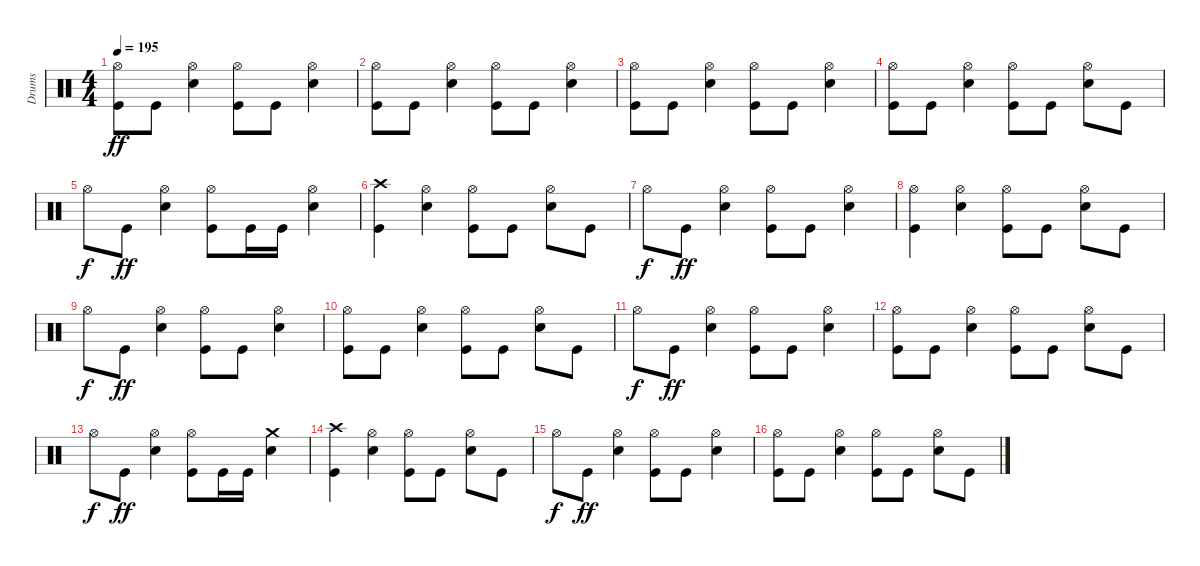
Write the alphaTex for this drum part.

\track ("Drums" "Drums") {instrument percussion}
\staff {score}
\articulation defaults
\ts (4 4)
\tempo 195
\clef neutral
\ks c
("Hi-Hat (open)" "Kick (hit)").8{dy ff} "Kick (hit)".8 ("Hi-Hat (open)" "Snare (hit) 2").4 ("Hi-Hat (open)" "Kick (hit)").8 "Kick (hit)".8 ("Hi-Hat (open)" "Snare (hit) 2").4 |
("Hi-Hat (open)" "Kick (hit)").8 "Kick (hit)".8 ("Hi-Hat (open)" "Snare (hit) 2").4 ("Hi-Hat (open)" "Kick (hit)").8 "Kick (hit)".8 ("Hi-Hat (open)" "Snare (hit) 2").4 |
("Hi-Hat (open)" "Kick (hit)").8 "Kick (hit)".8 ("Hi-Hat (open)" "Snare (hit) 2").4 ("Hi-Hat (open)" "Kick (hit)").8 "Kick (hit)".8 ("Hi-Hat (open)" "Snare (hit) 2").4 |
("Hi-Hat (open)" "Kick (hit)").8 "Kick (hit)".8 ("Hi-Hat (open)" "Snare (hit) 2").4 ("Hi-Hat (open)" "Kick (hit)").8 "Kick (hit)".8 ("Hi-Hat (open)" "Snare (hit) 2").8 "Kick (hit)".8 |
"Hi-Hat (open)".8{dy f} "Kick (hit)".8{dy ff} ("Hi-Hat (open)" "Snare (hit) 2").4 ("Hi-Hat (open)" "Kick (hit)").8 "Kick (hit)".16 "Kick (hit)".16 ("Hi-Hat (open)" "Snare (hit) 2").4 |
("Crash high (hit)" "Kick (hit)").4 ("Hi-Hat (open)" "Snare (hit) 2").4 ("Hi-Hat (open)" "Kick (hit)").8 "Kick (hit)".8 ("Hi-Hat (open)" "Snare (hit) 2").8 "Kick (hit)".8 |
"Hi-Hat (open)".8{dy f} "Kick (hit)".8{dy ff} ("Hi-Hat (open)" "Snare (hit) 2").4 ("Hi-Hat (open)" "Kick (hit)").8 "Kick (hit)".8 ("Hi-Hat (open)" "Snare (hit) 2").4 |
("Hi-Hat (open)" "Kick (hit)").4 ("Hi-Hat (open)" "Snare (hit) 2").4 ("Hi-Hat (open)" "Kick (hit)").8 "Kick (hit)".8 ("Hi-Hat (open)" "Snare (hit) 2").8 "Kick (hit)".8 |
"Hi-Hat (open)".8{dy f} "Kick (hit)".8{dy ff} ("Hi-Hat (open)" "Snare (hit) 2").4 ("Hi-Hat (open)" "Kick (hit)").8 "Kick (hit)".8 ("Hi-Hat (open)" "Snare (hit) 2").4 |
("Hi-Hat (open)" "Kick (hit)").8 "Kick (hit)".8 ("Hi-Hat (open)" "Snare (hit) 2").4 ("Hi-Hat (open)" "Kick (hit)").8 "Kick (hit)".8 ("Hi-Hat (open)" "Snare (hit) 2").8 "Kick (hit)".8 |
"Hi-Hat (open)".8{dy f} "Kick (hit)".8{dy ff} ("Hi-Hat (open)" "Snare (hit) 2").4 ("Hi-Hat (open)" "Kick (hit)").8 "Kick (hit)".8 ("Hi-Hat (open)" "Snare (hit) 2").4 |
("Hi-Hat (open)" "Kick (hit)").8 "Kick (hit)".8 ("Hi-Hat (open)" "Snare (hit) 2").4 ("Hi-Hat (open)" "Kick (hit)").8 "Kick (hit)".8 ("Hi-Hat (open)" "Snare (hit) 2").8 "Kick (hit)".8 |
"Hi-Hat (open)".8{dy f} "Kick (hit)".8{dy ff} ("Hi-Hat (open)" "Snare (hit) 2").4 ("Hi-Hat (open)" "Kick (hit)").8 "Kick (hit)".16 "Kick (hit)".16 ("Crash medium (hit)" "Snare (hit) 2").4 |
("Crash high (hit)" "Kick (hit)").4 ("Hi-Hat (open)" "Snare (hit) 2").4 ("Hi-Hat (open)" "Kick (hit)").8 "Kick (hit)".8 ("Hi-Hat (open)" "Snare (hit) 2").8 "Kick (hit)".8 |
"Hi-Hat (open)".8{dy f} "Kick (hit)".8{dy ff} ("Hi-Hat (open)" "Snare (hit) 2").4 ("Hi-Hat (open)" "Kick (hit)").8 "Kick (hit)".8 ("Hi-Hat (open)" "Snare (hit) 2").4 |
("Hi-Hat (open)" "Kick (hit)").8 "Kick (hit)".8 ("Hi-Hat (open)" "Snare (hit) 2").4 ("Hi-Hat (open)" "Kick (hit)").8 "Kick (hit)".8 ("Hi-Hat (open)" "Snare (hit) 2").8 "Kick (hit)".8
